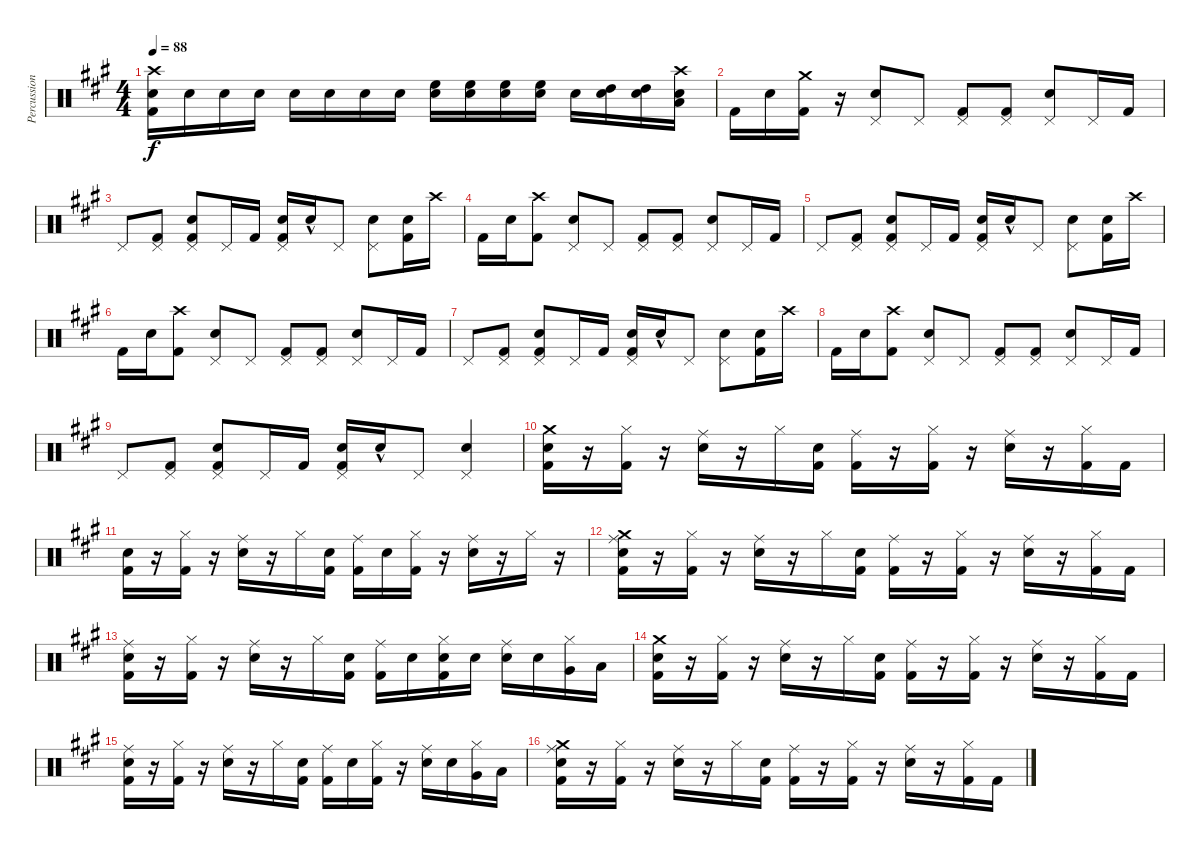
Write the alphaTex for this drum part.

\track ("Percussion" "Percussion") {instrument percussion}
\staff {score}
\articulation defaults
\ts (4 4)
\tempo 88
\clef neutral
\ks f#minor
("Snare (hit) 2" "Kick (hit) 2" "Crash high (hit)").16{dy f} "Snare (hit) 2".16 "Snare (hit) 2".16 "Snare (hit) 2".16 "Snare (hit) 2".16 "Snare (hit) 2".16 "Snare (hit) 2".16 "Snare (hit) 2".16 ("Snare (hit) 2" "High Floor Tom (hit)").16 ("Snare (hit) 2" "High Floor Tom (hit)").16 ("High Floor Tom (hit)" "Snare (hit) 2").16 ("High Floor Tom (hit)" "Snare (hit) 2").16 "Snare (hit) 2".16 ("Snare (hit) 2" "High Tom (hit)").16 ("High Tom (hit)" "Snare (hit) 2").16 ("Low Floor Tom (hit)" "Snare (hit) 2" "Crash high (hit)").16 |
"Kick (hit) 2".16 "Snare (hit) 2".16 ("Kick (hit) 2" "Crash medium (hit)").16 r.16 ("Pedal Hi-Hat (hit)" "Snare (hit) 2").8 "Pedal Hi-Hat (hit)".8 ("Pedal Hi-Hat (hit)" "Kick (hit) 2").8 ("Pedal Hi-Hat (hit)" "Kick (hit) 2").8 ("Pedal Hi-Hat (hit)" "Snare (hit) 2").8 "Pedal Hi-Hat (hit)".16 "Kick (hit) 2".16 |
"Pedal Hi-Hat (hit)".8 ("Pedal Hi-Hat (hit)" "Kick (hit) 2").8 ("Pedal Hi-Hat (hit)" "Snare (hit) 2" "Kick (hit) 2").8 "Pedal Hi-Hat (hit)".16 "Kick (hit) 2".16 ("Pedal Hi-Hat (hit)" "Snare (hit) 2" "Kick (hit) 2").16 "Snare (hit) 2"{hac}.16 "Pedal Hi-Hat (hit)".8 ("Pedal Hi-Hat (hit)" "Snare (hit) 2").8 ("Snare (hit) 2" "Kick (hit) 2").16 "Crash high (hit)".16 |
"Kick (hit) 2".16 "Snare (hit) 2".16 ("Crash high (hit)" "Kick (hit) 2").8 ("Pedal Hi-Hat (hit)" "Snare (hit) 2").8 "Pedal Hi-Hat (hit)".8 ("Pedal Hi-Hat (hit)" "Kick (hit) 2").8 ("Pedal Hi-Hat (hit)" "Kick (hit) 2").8 ("Pedal Hi-Hat (hit)" "Snare (hit) 2").8 "Pedal Hi-Hat (hit)".16 "Kick (hit) 2".16 |
"Pedal Hi-Hat (hit)".8 ("Pedal Hi-Hat (hit)" "Kick (hit) 2").8 ("Pedal Hi-Hat (hit)" "Snare (hit) 2" "Kick (hit) 2").8 "Pedal Hi-Hat (hit)".16 "Kick (hit) 2".16 ("Pedal Hi-Hat (hit)" "Snare (hit) 2" "Kick (hit) 2").16 "Snare (hit) 2"{hac}.16 "Pedal Hi-Hat (hit)".8 ("Pedal Hi-Hat (hit)" "Snare (hit) 2").8 ("Snare (hit) 2" "Kick (hit) 2").16 "Crash high (hit)".16 |
"Kick (hit) 2".16 "Snare (hit) 2".16 ("Crash high (hit)" "Kick (hit) 2").8 ("Pedal Hi-Hat (hit)" "Snare (hit) 2").8 "Pedal Hi-Hat (hit)".8 ("Pedal Hi-Hat (hit)" "Kick (hit) 2").8 ("Pedal Hi-Hat (hit)" "Kick (hit) 2").8 ("Pedal Hi-Hat (hit)" "Snare (hit) 2").8 "Pedal Hi-Hat (hit)".16 "Kick (hit) 2".16 |
"Pedal Hi-Hat (hit)".8 ("Pedal Hi-Hat (hit)" "Kick (hit) 2").8 ("Pedal Hi-Hat (hit)" "Snare (hit) 2" "Kick (hit) 2").8 "Pedal Hi-Hat (hit)".16 "Kick (hit) 2".16 ("Pedal Hi-Hat (hit)" "Snare (hit) 2" "Kick (hit) 2").16 "Snare (hit) 2"{hac}.16 "Pedal Hi-Hat (hit)".8 ("Pedal Hi-Hat (hit)" "Snare (hit) 2").8 ("Snare (hit) 2" "Kick (hit) 2").16 "Crash high (hit)".16 |
"Kick (hit) 2".16 "Snare (hit) 2".16 ("Crash high (hit)" "Kick (hit) 2").8 ("Pedal Hi-Hat (hit)" "Snare (hit) 2").8 "Pedal Hi-Hat (hit)".8 ("Pedal Hi-Hat (hit)" "Kick (hit) 2").8 ("Pedal Hi-Hat (hit)" "Kick (hit) 2").8 ("Pedal Hi-Hat (hit)" "Snare (hit) 2").8 "Pedal Hi-Hat (hit)".16 "Kick (hit) 2".16 |
"Pedal Hi-Hat (hit)".8 ("Pedal Hi-Hat (hit)" "Kick (hit) 2").8 ("Pedal Hi-Hat (hit)" "Snare (hit) 2" "Kick (hit) 2").8 "Pedal Hi-Hat (hit)".16 "Kick (hit) 2".16 ("Pedal Hi-Hat (hit)" "Snare (hit) 2" "Kick (hit) 2").16 "Snare (hit) 2"{hac}.16 "Pedal Hi-Hat (hit)".8 ("Pedal Hi-Hat (hit)" "Snare (hit) 2").4 |
("Crash medium (hit)" "Snare (hit) 2" "Kick (hit) 2").16 r.16 ("Kick (hit) 2" "Hi-Hat (closed)").16 r.16 ("Ride (middle)" "Snare (hit) 2").16 r.16 "Hi-Hat (closed)".16 ("Snare (hit) 2" "Kick (hit) 2").16 ("Ride (middle)" "Kick (hit) 2").16 r.16 ("Hi-Hat (closed)" "Kick (hit) 2").16 r.16 ("Snare (hit) 2" "Ride (middle)").16 r.16 ("Kick (hit) 2" "Hi-Hat (closed)").16 "Kick (hit) 2".16 |
("Snare (hit) 2" "Kick (hit) 2").16 r.16 ("Hi-Hat (closed)" "Kick (hit) 2").16 r.16 ("Ride (middle)" "Snare (hit) 2").16 r.16 "Hi-Hat (closed)".16 ("Snare (hit) 2" "Kick (hit) 2").16 ("Kick (hit) 2" "Ride (middle)").16 "Snare (hit) 2".16 ("Hi-Hat (closed)" "Kick (hit) 2").16 r.16 ("Snare (hit) 2" "Ride (middle)").16 r.16 "Hi-Hat (closed)".16 r.16 |
("Ride (middle)" "Kick (hit) 2" "Crash medium (hit)" "Snare (hit) 2").16 r.16 ("Kick (hit) 2" "Hi-Hat (closed)").16 r.16 ("Ride (middle)" "Snare (hit) 2").16 r.16 "Hi-Hat (closed)".16 ("Snare (hit) 2" "Kick (hit) 2").16 ("Kick (hit) 2" "Ride (middle)").16 r.16 ("Hi-Hat (closed)" "Kick (hit) 2").16 r.16 ("Snare (hit) 2" "Ride (middle)").16 r.16 ("Kick (hit) 2" "Hi-Hat (closed)").16 "Kick (hit) 2".16 |
("Ride (middle)" "Kick (hit) 2" "Snare (hit) 2").16 r.16 ("Hi-Hat (closed)" "Kick (hit) 2").16 r.16 ("Ride (middle)" "Snare (hit) 2").16 r.16 "Hi-Hat (closed)".16 ("Snare (hit) 2" "Kick (hit) 2").16 ("Ride (middle)" "Kick (hit) 2").16 "Snare (hit) 2".16 ("Snare (hit) 2" "Hi-Hat (closed)" "Kick (hit) 2").16 "Snare (hit) 2".16 ("Snare (hit) 2" "Ride (middle)").16 "Snare (hit) 2".16 ("Very Low Tom (hit)" "Hi-Hat (closed)").16 "Low Floor Tom (hit)".16 |
("Crash medium (hit)" "Snare (hit) 2" "Kick (hit) 2").16 r.16 ("Kick (hit) 2" "Hi-Hat (closed)").16 r.16 ("Ride (middle)" "Snare (hit) 2").16 r.16 "Hi-Hat (closed)".16 ("Snare (hit) 2" "Kick (hit) 2").16 ("Ride (middle)" "Kick (hit) 2").16 r.16 ("Hi-Hat (closed)" "Kick (hit) 2").16 r.16 ("Snare (hit) 2" "Ride (middle)").16 r.16 ("Kick (hit) 2" "Hi-Hat (closed)").16 "Kick (hit) 2".16 |
("Ride (middle)" "Snare (hit) 2" "Kick (hit) 2").16 r.16 ("Hi-Hat (closed)" "Kick (hit) 2").16 r.16 ("Ride (middle)" "Snare (hit) 2").16 r.16 "Hi-Hat (closed)".16 ("Snare (hit) 2" "Kick (hit) 2").16 ("Kick (hit) 2" "Ride (middle)").16 "Snare (hit) 2".16 ("Hi-Hat (closed)" "Kick (hit) 2").16 r.16 ("Snare (hit) 2" "Ride (middle)").16 "Snare (hit) 2".16 ("Hi-Hat (closed)" "Very Low Tom (hit)").16 "Low Floor Tom (hit)".16 |
("Crash medium (hit)" "Snare (hit) 2" "Ride (middle)" "Kick (hit) 2").16 r.16 ("Kick (hit) 2" "Hi-Hat (closed)").16 r.16 ("Ride (middle)" "Snare (hit) 2").16 r.16 "Hi-Hat (closed)".16 ("Snare (hit) 2" "Kick (hit) 2").16 ("Kick (hit) 2" "Ride (middle)").16 r.16 ("Hi-Hat (closed)" "Kick (hit) 2").16 r.16 ("Snare (hit) 2" "Ride (middle)").16 r.16 ("Kick (hit) 2" "Hi-Hat (closed)").16 "Kick (hit) 2".16
